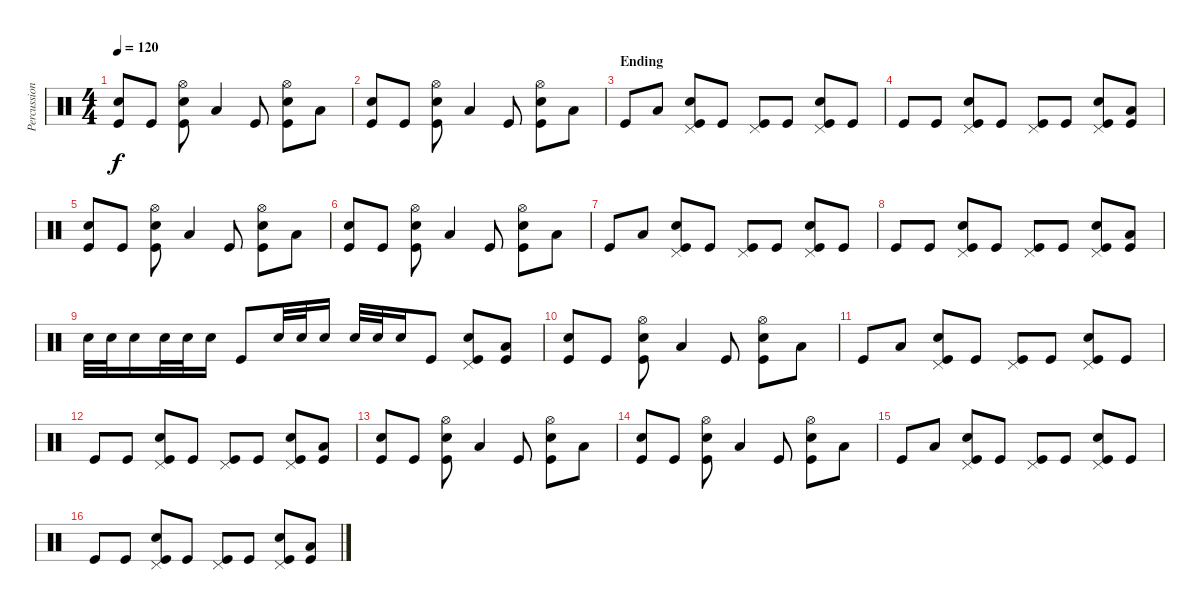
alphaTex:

\track ("Percussion" "Percussion") {instrument percussion}
\staff {score}
\articulation defaults
\ts (4 4)
\tempo 120
\clef neutral
\ks c
("Kick (hit)" "Snare (hit) 2").8{dy f} "Kick (hit)".8 ("Snare (hit) 2" "Kick (hit)" "Hi-Hat (open)").8 "Low Floor Tom (hit)".4 "Kick (hit)".8 ("Snare (hit) 2" "Kick (hit)" "Hi-Hat (open)").8 "Low Tom (hit)".8 |
("Kick (hit)" "Snare (hit) 2").8 "Kick (hit)".8 ("Snare (hit) 2" "Kick (hit)" "Hi-Hat (open)").8 "Low Floor Tom (hit)".4 "Kick (hit)".8 ("Snare (hit) 2" "Kick (hit)" "Hi-Hat (open)").8 "Low Tom (hit)".8 |
\section ("" "Ending")
"Kick (hit)".8 "Low Tom (hit)".8 ("Snare (hit) 2" "Kick (hit)" "Pedal Hi-Hat (hit)").8 "Kick (hit)".8 ("Kick (hit)" "Pedal Hi-Hat (hit)").8 "Kick (hit)".8 ("Snare (hit) 2" "Kick (hit)" "Pedal Hi-Hat (hit)").8 "Kick (hit)".8 |
"Kick (hit)".8 "Kick (hit)".8 ("Snare (hit) 2" "Kick (hit)" "Pedal Hi-Hat (hit)").8 "Kick (hit)".8 ("Kick (hit)" "Pedal Hi-Hat (hit)").8 "Kick (hit)".8 ("Snare (hit) 2" "Kick (hit)" "Pedal Hi-Hat (hit)").8 ("Low Tom (hit)" "Kick (hit)").8 |
("Kick (hit)" "Snare (hit) 2").8 "Kick (hit)".8 ("Snare (hit) 2" "Kick (hit)" "Hi-Hat (open)").8 "Low Floor Tom (hit)".4 "Kick (hit)".8 ("Snare (hit) 2" "Kick (hit)" "Hi-Hat (open)").8 "Low Tom (hit)".8 |
("Kick (hit)" "Snare (hit) 2").8 "Kick (hit)".8 ("Snare (hit) 2" "Kick (hit)" "Hi-Hat (open)").8 "Low Floor Tom (hit)".4 "Kick (hit)".8 ("Snare (hit) 2" "Kick (hit)" "Hi-Hat (open)").8 "Low Tom (hit)".8 |
"Kick (hit)".8 "Low Tom (hit)".8 ("Snare (hit) 2" "Kick (hit)" "Pedal Hi-Hat (hit)").8 "Kick (hit)".8 ("Kick (hit)" "Pedal Hi-Hat (hit)").8 "Kick (hit)".8 ("Snare (hit) 2" "Kick (hit)" "Pedal Hi-Hat (hit)").8 "Kick (hit)".8 |
"Kick (hit)".8 "Kick (hit)".8 ("Snare (hit) 2" "Kick (hit)" "Pedal Hi-Hat (hit)").8 "Kick (hit)".8 ("Kick (hit)" "Pedal Hi-Hat (hit)").8 "Kick (hit)".8 ("Snare (hit) 2" "Kick (hit)" "Pedal Hi-Hat (hit)").8 ("Low Tom (hit)" "Kick (hit)").8 |
"Electric Snare (hit)".32 "Electric Snare (hit)".32 "Electric Snare (hit)".16 "Electric Snare (hit)".32 "Electric Snare (hit)".32 "Electric Snare (hit)".16 "Kick (hit)".8 "Electric Snare (hit)".32 "Electric Snare (hit)".32 "Electric Snare (hit)".16 "Electric Snare (hit)".32 "Electric Snare (hit)".32 "Electric Snare (hit)".16 "Kick (hit)".8 ("Snare (hit) 2" "Kick (hit)" "Pedal Hi-Hat (hit)").8 ("Low Tom (hit)" "Kick (hit)").8 |
("Kick (hit)" "Snare (hit) 2").8 "Kick (hit)".8 ("Snare (hit) 2" "Kick (hit)" "Hi-Hat (open)").8 "Low Floor Tom (hit)".4 "Kick (hit)".8 ("Snare (hit) 2" "Kick (hit)" "Hi-Hat (open)").8 "Low Tom (hit)".8 |
"Kick (hit)".8 "Low Tom (hit)".8 ("Snare (hit) 2" "Kick (hit)" "Pedal Hi-Hat (hit)").8 "Kick (hit)".8 ("Kick (hit)" "Pedal Hi-Hat (hit)").8 "Kick (hit)".8 ("Snare (hit) 2" "Kick (hit)" "Pedal Hi-Hat (hit)").8 "Kick (hit)".8 |
"Kick (hit)".8 "Kick (hit)".8 ("Snare (hit) 2" "Kick (hit)" "Pedal Hi-Hat (hit)").8 "Kick (hit)".8 ("Kick (hit)" "Pedal Hi-Hat (hit)").8 "Kick (hit)".8 ("Snare (hit) 2" "Kick (hit)" "Pedal Hi-Hat (hit)").8 ("Low Tom (hit)" "Kick (hit)").8 |
("Kick (hit)" "Snare (hit) 2").8 "Kick (hit)".8 ("Snare (hit) 2" "Kick (hit)" "Hi-Hat (open)").8 "Low Floor Tom (hit)".4 "Kick (hit)".8 ("Snare (hit) 2" "Kick (hit)" "Hi-Hat (open)").8 "Low Tom (hit)".8 |
("Kick (hit)" "Snare (hit) 2").8 "Kick (hit)".8 ("Snare (hit) 2" "Kick (hit)" "Hi-Hat (open)").8 "Low Floor Tom (hit)".4 "Kick (hit)".8 ("Snare (hit) 2" "Kick (hit)" "Hi-Hat (open)").8 "Low Tom (hit)".8 |
"Kick (hit)".8 "Low Tom (hit)".8 ("Snare (hit) 2" "Kick (hit)" "Pedal Hi-Hat (hit)").8 "Kick (hit)".8 ("Kick (hit)" "Pedal Hi-Hat (hit)").8 "Kick (hit)".8 ("Snare (hit) 2" "Kick (hit)" "Pedal Hi-Hat (hit)").8 "Kick (hit)".8 |
"Kick (hit)".8 "Kick (hit)".8 ("Snare (hit) 2" "Kick (hit)" "Pedal Hi-Hat (hit)").8 "Kick (hit)".8 ("Kick (hit)" "Pedal Hi-Hat (hit)").8 "Kick (hit)".8 ("Snare (hit) 2" "Kick (hit)" "Pedal Hi-Hat (hit)").8 ("Low Tom (hit)" "Kick (hit)").8
